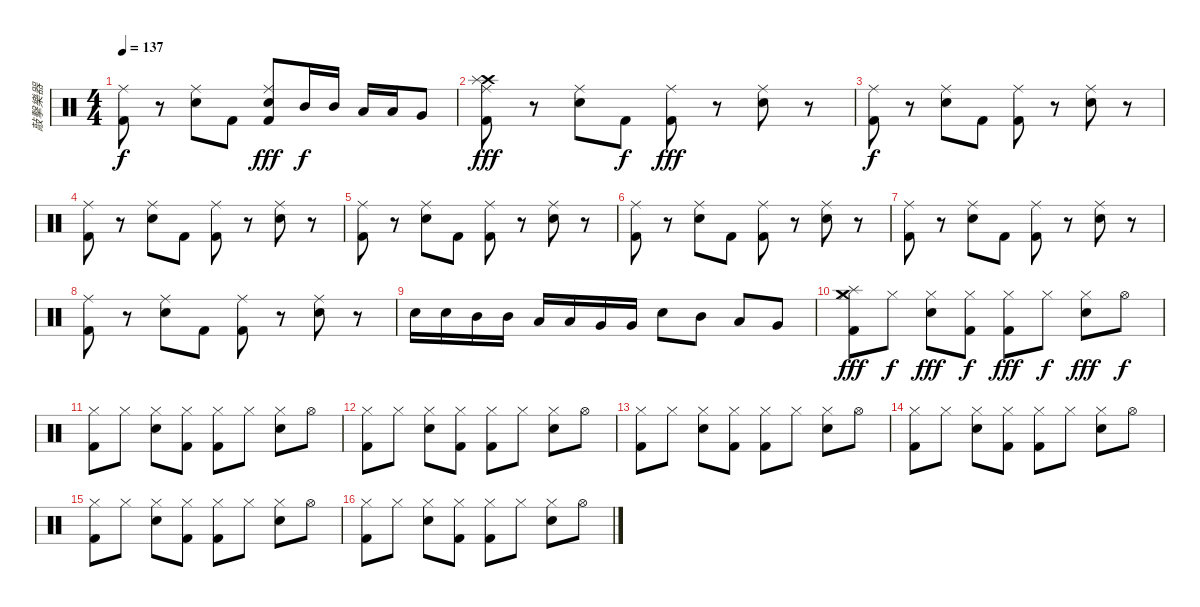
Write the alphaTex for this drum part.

\track ("敲擊樂器" "敲擊樂器") {instrument percussion}
\staff {score}
\articulation defaults
\ts (4 4)
\tempo 137
\clef neutral
\ks c
("Kick (hit) 2" "Ride (middle)").8{dy f} r.8 ("Snare (hit) 2" "Ride (middle)").8 "Kick (hit) 2".8 ("Kick (hit) 2" "Snare (hit) 2" "Ride (middle)").8{dy fff} "Mid Tom (hit)".16{dy f} "Mid Tom (hit)".16 "Low Tom (hit)".16 "Low Tom (hit)".16 "Very Low Tom (hit)".8 |
("Crash high (hit)" "Splash (hit)" "Kick (hit) 2" "Ride (middle)").8{dy fff} r.8 ("Snare (hit) 2" "Ride (middle)").8 "Kick (hit) 2".8{dy f} ("Kick (hit) 2" "Ride (middle)").8{dy fff} r.8 ("Snare (hit) 2" "Ride (middle)").8 r.8 |
("Kick (hit) 2" "Ride (middle)").8{dy f} r.8 ("Snare (hit) 2" "Ride (middle)").8 "Kick (hit) 2".8 ("Kick (hit) 2" "Ride (middle)").8 r.8 ("Snare (hit) 2" "Ride (middle)").8 r.8 |
("Kick (hit) 2" "Ride (middle)").8 r.8 ("Snare (hit) 2" "Ride (middle)").8 "Kick (hit) 2".8 ("Kick (hit) 2" "Ride (middle)").8 r.8 ("Snare (hit) 2" "Ride (middle)").8 r.8 |
("Kick (hit) 2" "Ride (middle)").8 r.8 ("Snare (hit) 2" "Ride (middle)").8 "Kick (hit) 2".8 ("Kick (hit) 2" "Ride (middle)").8 r.8 ("Snare (hit) 2" "Ride (middle)").8 r.8 |
("Kick (hit) 2" "Ride (middle)").8 r.8 ("Snare (hit) 2" "Ride (middle)").8 "Kick (hit) 2".8 ("Kick (hit) 2" "Ride (middle)").8 r.8 ("Snare (hit) 2" "Ride (middle)").8 r.8 |
("Kick (hit) 2" "Ride (middle)").8 r.8 ("Snare (hit) 2" "Ride (middle)").8 "Kick (hit) 2".8 ("Kick (hit) 2" "Ride (middle)").8 r.8 ("Snare (hit) 2" "Ride (middle)").8 r.8 |
("Kick (hit) 2" "Ride (middle)").8 r.8 ("Snare (hit) 2" "Ride (middle)").8 "Kick (hit) 2".8 ("Kick (hit) 2" "Ride (middle)").8 r.8 ("Snare (hit) 2" "Ride (middle)").8 r.8 |
"Snare (hit) 2".16 "Snare (hit) 2".16 "Mid Tom (hit)".16 "Mid Tom (hit)".16 "Low Tom (hit)".16 "Low Tom (hit)".16 "Very Low Tom (hit)".16 "Very Low Tom (hit)".16 "Snare (hit) 2".8 "Mid Tom (hit)".8 "Low Tom (hit)".8 "Very Low Tom (hit)".8 |
("Crash medium (hit)" "Splash (hit)" "Kick (hit) 2" "Hi-Hat (closed)").8{dy fff} "Hi-Hat (closed)".8{dy f} ("Snare (hit) 2" "Hi-Hat (closed)").8{dy fff} ("Kick (hit) 2" "Hi-Hat (closed)").8{dy f} ("Kick (hit) 2" "Hi-Hat (closed)").8{dy fff} "Hi-Hat (closed)".8{dy f} ("Snare (hit) 2" "Hi-Hat (closed)").8{dy fff} "Hi-Hat (open)".8{dy f} |
("Kick (hit) 2" "Hi-Hat (closed)").8 "Hi-Hat (closed)".8 ("Snare (hit) 2" "Hi-Hat (closed)").8 ("Kick (hit) 2" "Hi-Hat (closed)").8 ("Kick (hit) 2" "Hi-Hat (closed)").8 "Hi-Hat (closed)".8 ("Snare (hit) 2" "Hi-Hat (closed)").8 "Hi-Hat (open)".8 |
("Kick (hit) 2" "Hi-Hat (closed)").8 "Hi-Hat (closed)".8 ("Snare (hit) 2" "Hi-Hat (closed)").8 ("Kick (hit) 2" "Hi-Hat (closed)").8 ("Kick (hit) 2" "Hi-Hat (closed)").8 "Hi-Hat (closed)".8 ("Snare (hit) 2" "Hi-Hat (closed)").8 "Hi-Hat (open)".8 |
("Kick (hit) 2" "Hi-Hat (closed)").8 "Hi-Hat (closed)".8 ("Snare (hit) 2" "Hi-Hat (closed)").8 ("Kick (hit) 2" "Hi-Hat (closed)").8 ("Kick (hit) 2" "Hi-Hat (closed)").8 "Hi-Hat (closed)".8 ("Snare (hit) 2" "Hi-Hat (closed)").8 "Hi-Hat (open)".8 |
("Kick (hit) 2" "Hi-Hat (closed)").8 "Hi-Hat (closed)".8 ("Snare (hit) 2" "Hi-Hat (closed)").8 ("Kick (hit) 2" "Hi-Hat (closed)").8 ("Kick (hit) 2" "Hi-Hat (closed)").8 "Hi-Hat (closed)".8 ("Snare (hit) 2" "Hi-Hat (closed)").8 "Hi-Hat (open)".8 |
("Kick (hit) 2" "Hi-Hat (closed)").8 "Hi-Hat (closed)".8 ("Snare (hit) 2" "Hi-Hat (closed)").8 ("Kick (hit) 2" "Hi-Hat (closed)").8 ("Kick (hit) 2" "Hi-Hat (closed)").8 "Hi-Hat (closed)".8 ("Snare (hit) 2" "Hi-Hat (closed)").8 "Hi-Hat (open)".8 |
("Kick (hit) 2" "Hi-Hat (closed)").8 "Hi-Hat (closed)".8 ("Snare (hit) 2" "Hi-Hat (closed)").8 ("Kick (hit) 2" "Hi-Hat (closed)").8 ("Kick (hit) 2" "Hi-Hat (closed)").8 "Hi-Hat (closed)".8 ("Snare (hit) 2" "Hi-Hat (closed)").8 "Hi-Hat (open)".8
